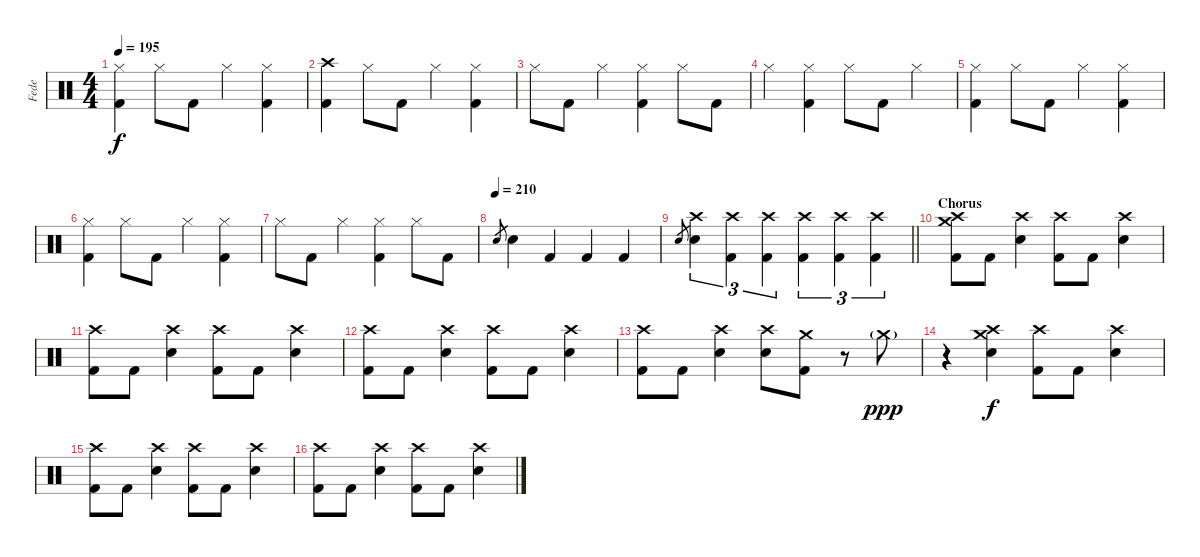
\track ("Fede" "Fede") {instrument percussion}
\staff {score}
\articulation defaults
\ts (4 4)
\tempo 195
\clef neutral
\ks c
("Hi-Hat (closed)" "Kick (hit) 2").4{dy f} "Hi-Hat (closed)".8 "Kick (hit) 2".8 "Hi-Hat (closed)".4 ("Hi-Hat (closed)" "Kick (hit) 2").4 |
("Crash high (hit)" "Kick (hit) 2").4 "Hi-Hat (closed)".8 "Kick (hit) 2".8 "Hi-Hat (closed)".4 ("Hi-Hat (closed)" "Kick (hit) 2").4 |
"Hi-Hat (closed)".8 "Kick (hit) 2".8 "Hi-Hat (closed)".4 ("Hi-Hat (closed)" "Kick (hit) 2").4 "Hi-Hat (closed)".8 "Kick (hit) 2".8 |
"Hi-Hat (closed)".4 ("Hi-Hat (closed)" "Kick (hit) 2").4 "Hi-Hat (closed)".8 "Kick (hit) 2".8 "Hi-Hat (closed)".4 |
("Hi-Hat (closed)" "Kick (hit) 2").4 "Hi-Hat (closed)".8 "Kick (hit) 2".8 "Hi-Hat (closed)".4 ("Hi-Hat (closed)" "Kick (hit) 2").4 |
("Hi-Hat (closed)" "Kick (hit) 2").4 "Hi-Hat (closed)".8 "Kick (hit) 2".8 "Hi-Hat (closed)".4 ("Hi-Hat (closed)" "Kick (hit) 2").4 |
"Hi-Hat (closed)".8 "Kick (hit) 2".8 "Hi-Hat (closed)".4 ("Hi-Hat (closed)" "Kick (hit) 2").4 "Hi-Hat (closed)".8 "Kick (hit) 2".8 |
\tempo (210)
"Snare (hit) 2".8{gr} "Snare (hit) 2".4 "Kick (hit) 2".4 "Kick (hit) 2".4 "Kick (hit) 2".4 |
\barLineRight lightlight "Snare (hit) 2".8{gr}
("Crash high (hit)" "Snare (hit) 2").4{tu (3 2)} ("Crash high (hit)" "Kick (hit) 2").4{tu (3 2)} ("Crash high (hit)" "Kick (hit) 2").4{tu (3 2)} ("Crash high (hit)" "Kick (hit) 2").4{tu (3 2)} ("Crash high (hit)" "Kick (hit) 2").4{tu (3 2)} ("Crash high (hit)" "Kick (hit) 2").4{tu (3 2)} |
\section ("" "Chorus")
("Crash high (hit)" "Crash medium (hit)" "Kick (hit) 2").8 "Kick (hit) 2".8 ("Crash high (hit)" "Snare (hit) 2").4 ("Crash high (hit)" "Kick (hit) 2").8 "Kick (hit) 2".8 ("Crash high (hit)" "Snare (hit) 2").4 |
("Crash high (hit)" "Kick (hit) 2").8 "Kick (hit) 2".8 ("Crash high (hit)" "Snare (hit) 2").4 ("Crash high (hit)" "Kick (hit) 2").8 "Kick (hit) 2".8 ("Crash high (hit)" "Snare (hit) 2").4 |
("Crash high (hit)" "Kick (hit) 2").8 "Kick (hit) 2".8 ("Crash high (hit)" "Snare (hit) 2").4 ("Crash high (hit)" "Kick (hit) 2").8 "Kick (hit) 2".8 ("Crash high (hit)" "Snare (hit) 2").4 |
("Crash high (hit)" "Kick (hit) 2").8 "Kick (hit) 2".8 ("Crash high (hit)" "Snare (hit) 2").4 ("Crash high (hit)" "Snare (hit) 2").8 ("Crash medium (hit)" "Kick (hit) 2").8 r.8 "Crash medium (hit)"{g}.8{dy ppp} |
r.4 ("Crash high (hit)" "Crash medium (hit)" "Snare (hit) 2").4{dy f} ("Crash high (hit)" "Kick (hit) 2").8 "Kick (hit) 2".8 ("Crash high (hit)" "Snare (hit) 2").4 |
("Crash high (hit)" "Kick (hit) 2").8 "Kick (hit) 2".8 ("Crash high (hit)" "Snare (hit) 2").4 ("Crash high (hit)" "Kick (hit) 2").8 "Kick (hit) 2".8 ("Crash high (hit)" "Snare (hit) 2").4 |
("Crash high (hit)" "Kick (hit) 2").8 "Kick (hit) 2".8 ("Crash high (hit)" "Snare (hit) 2").4 ("Crash high (hit)" "Kick (hit) 2").8 "Kick (hit) 2".8 ("Crash high (hit)" "Snare (hit) 2").4
